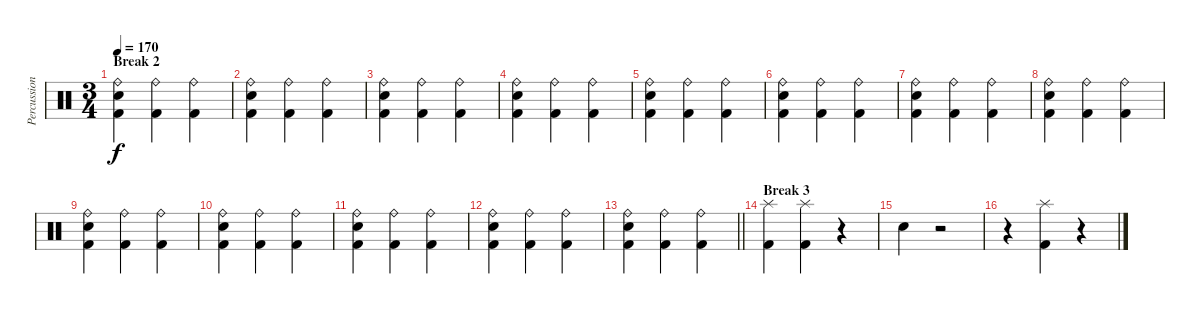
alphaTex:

\track ("Percussion" "Percussion") {instrument percussion}
\staff {score}
\articulation defaults
\ts (3 4)
\section ("" "Break 2")
\tempo 170
\clef neutral
\ks c
("Ride (bell)" "Electric Snare (hit)" "Kick (hit) 2").4{dy f} ("Ride (bell)" "Kick (hit) 2").4 ("Ride (bell)" "Kick (hit) 2").4 |
("Ride (bell)" "Electric Snare (hit)" "Kick (hit) 2").4 ("Ride (bell)" "Kick (hit) 2").4 ("Ride (bell)" "Kick (hit) 2").4 |
("Ride (bell)" "Electric Snare (hit)" "Kick (hit) 2").4 ("Ride (bell)" "Kick (hit) 2").4 ("Ride (bell)" "Kick (hit) 2").4 |
("Ride (bell)" "Electric Snare (hit)" "Kick (hit) 2").4 ("Ride (bell)" "Kick (hit) 2").4 ("Ride (bell)" "Kick (hit) 2").4 |
("Ride (bell)" "Electric Snare (hit)" "Kick (hit) 2").4 ("Ride (bell)" "Kick (hit) 2").4 ("Ride (bell)" "Kick (hit) 2").4 |
("Ride (bell)" "Electric Snare (hit)" "Kick (hit) 2").4 ("Ride (bell)" "Kick (hit) 2").4 ("Ride (bell)" "Kick (hit) 2").4 |
("Ride (bell)" "Electric Snare (hit)" "Kick (hit) 2").4 ("Ride (bell)" "Kick (hit) 2").4 ("Ride (bell)" "Kick (hit) 2").4 |
("Ride (bell)" "Electric Snare (hit)" "Kick (hit) 2").4 ("Ride (bell)" "Kick (hit) 2").4 ("Ride (bell)" "Kick (hit) 2").4 |
("Ride (bell)" "Electric Snare (hit)" "Kick (hit) 2").4 ("Ride (bell)" "Kick (hit) 2").4 ("Ride (bell)" "Kick (hit) 2").4 |
("Ride (bell)" "Electric Snare (hit)" "Kick (hit) 2").4 ("Ride (bell)" "Kick (hit) 2").4 ("Ride (bell)" "Kick (hit) 2").4 |
("Ride (bell)" "Electric Snare (hit)" "Kick (hit) 2").4 ("Ride (bell)" "Kick (hit) 2").4 ("Ride (bell)" "Kick (hit) 2").4 |
("Ride (bell)" "Electric Snare (hit)" "Kick (hit) 2").4 ("Ride (bell)" "Kick (hit) 2").4 ("Ride (bell)" "Kick (hit) 2").4 |
\barLineRight lightlight
("Ride (bell)" "Electric Snare (hit)" "Kick (hit) 2").4 ("Ride (bell)" "Kick (hit) 2").4 ("Ride (bell)" "Kick (hit) 2").4 |
\section ("" "Break 3")
("Splash (hit)" "Kick (hit) 2").4 ("Splash (hit)" "Kick (hit) 2").4 r.4 |
"Electric Snare (hit)".4 r.2 |
r.4 ("Splash (hit)" "Kick (hit) 2").4 r.4
